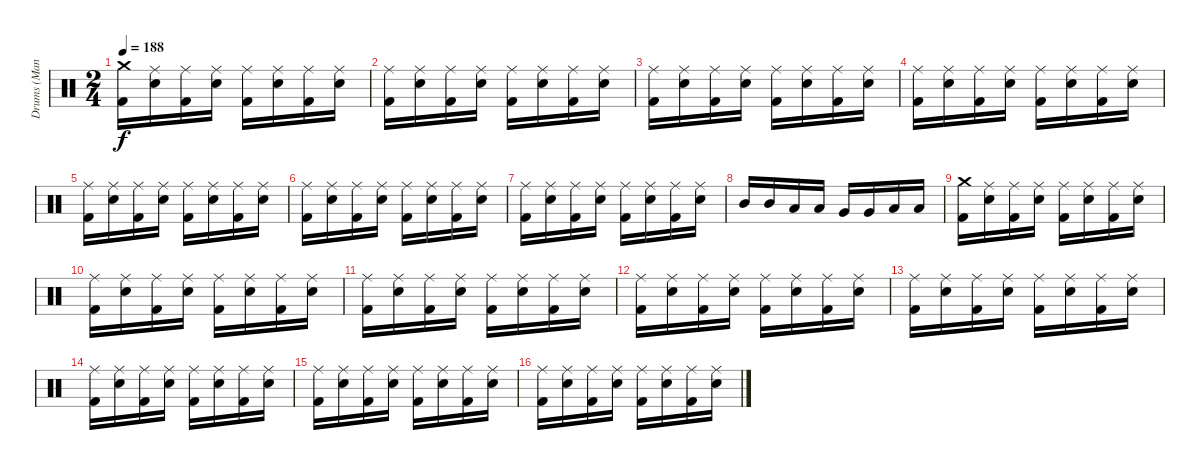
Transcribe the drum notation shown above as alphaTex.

\track ("Drums (Manheim)" "Drums (Man") {instrument percussion}
\staff {score}
\articulation defaults
\ts (2 4)
\tempo 188
\clef neutral
\ks c
("Crash medium (hit)" "Kick (hit) 2").16{dy f} ("Ride (middle)" "Electric Snare (hit)").16 ("Ride (middle)" "Kick (hit) 2").16 ("Ride (middle)" "Electric Snare (hit)").16 ("Ride (middle)" "Kick (hit) 2").16 ("Ride (middle)" "Electric Snare (hit)").16 ("Ride (middle)" "Kick (hit) 2").16 ("Ride (middle)" "Electric Snare (hit)").16 |
("Ride (middle)" "Kick (hit) 2").16 ("Ride (middle)" "Electric Snare (hit)").16 ("Ride (middle)" "Kick (hit) 2").16 ("Ride (middle)" "Electric Snare (hit)").16 ("Ride (middle)" "Kick (hit) 2").16 ("Ride (middle)" "Electric Snare (hit)").16 ("Ride (middle)" "Kick (hit) 2").16 ("Ride (middle)" "Electric Snare (hit)").16 |
("Ride (middle)" "Kick (hit) 2").16 ("Ride (middle)" "Electric Snare (hit)").16 ("Ride (middle)" "Kick (hit) 2").16 ("Ride (middle)" "Electric Snare (hit)").16 ("Ride (middle)" "Kick (hit) 2").16 ("Ride (middle)" "Electric Snare (hit)").16 ("Ride (middle)" "Kick (hit) 2").16 ("Ride (middle)" "Electric Snare (hit)").16 |
("Ride (middle)" "Kick (hit) 2").16 ("Ride (middle)" "Electric Snare (hit)").16 ("Ride (middle)" "Kick (hit) 2").16 ("Ride (middle)" "Electric Snare (hit)").16 ("Ride (middle)" "Kick (hit) 2").16 ("Ride (middle)" "Electric Snare (hit)").16 ("Ride (middle)" "Kick (hit) 2").16 ("Ride (middle)" "Electric Snare (hit)").16 |
("Ride (middle)" "Kick (hit) 2").16 ("Ride (middle)" "Electric Snare (hit)").16 ("Ride (middle)" "Kick (hit) 2").16 ("Ride (middle)" "Electric Snare (hit)").16 ("Ride (middle)" "Kick (hit) 2").16 ("Ride (middle)" "Electric Snare (hit)").16 ("Ride (middle)" "Kick (hit) 2").16 ("Ride (middle)" "Electric Snare (hit)").16 |
("Ride (middle)" "Kick (hit) 2").16 ("Ride (middle)" "Electric Snare (hit)").16 ("Ride (middle)" "Kick (hit) 2").16 ("Ride (middle)" "Electric Snare (hit)").16 ("Ride (middle)" "Kick (hit) 2").16 ("Ride (middle)" "Electric Snare (hit)").16 ("Ride (middle)" "Kick (hit) 2").16 ("Ride (middle)" "Electric Snare (hit)").16 |
("Ride (middle)" "Kick (hit) 2").16 ("Ride (middle)" "Electric Snare (hit)").16 ("Ride (middle)" "Kick (hit) 2").16 ("Ride (middle)" "Electric Snare (hit)").16 ("Ride (middle)" "Kick (hit) 2").16 ("Ride (middle)" "Electric Snare (hit)").16 ("Ride (middle)" "Kick (hit) 2").16 ("Ride (middle)" "Electric Snare (hit)").16 |
"Mid Tom (hit)".16 "Mid Tom (hit)".16 "Low Tom (hit)".16 "Low Tom (hit)".16 "Very Low Tom (hit)".16 "Very Low Tom (hit)".16 "Low Floor Tom (hit)".16 "Low Floor Tom (hit)".16 |
("Crash medium (hit)" "Kick (hit) 2").16 ("Ride (middle)" "Electric Snare (hit)").16 ("Ride (middle)" "Kick (hit) 2").16 ("Ride (middle)" "Electric Snare (hit)").16 ("Ride (middle)" "Kick (hit) 2").16 ("Ride (middle)" "Electric Snare (hit)").16 ("Ride (middle)" "Kick (hit) 2").16 ("Ride (middle)" "Electric Snare (hit)").16 |
("Ride (middle)" "Kick (hit) 2").16 ("Ride (middle)" "Electric Snare (hit)").16 ("Ride (middle)" "Kick (hit) 2").16 ("Ride (middle)" "Electric Snare (hit)").16 ("Ride (middle)" "Kick (hit) 2").16 ("Ride (middle)" "Electric Snare (hit)").16 ("Ride (middle)" "Kick (hit) 2").16 ("Ride (middle)" "Electric Snare (hit)").16 |
("Ride (middle)" "Kick (hit) 2").16 ("Ride (middle)" "Electric Snare (hit)").16 ("Ride (middle)" "Kick (hit) 2").16 ("Ride (middle)" "Electric Snare (hit)").16 ("Ride (middle)" "Kick (hit) 2").16 ("Ride (middle)" "Electric Snare (hit)").16 ("Ride (middle)" "Kick (hit) 2").16 ("Ride (middle)" "Electric Snare (hit)").16 |
("Ride (middle)" "Kick (hit) 2").16 ("Ride (middle)" "Electric Snare (hit)").16 ("Ride (middle)" "Kick (hit) 2").16 ("Ride (middle)" "Electric Snare (hit)").16 ("Ride (middle)" "Kick (hit) 2").16 ("Ride (middle)" "Electric Snare (hit)").16 ("Ride (middle)" "Kick (hit) 2").16 ("Ride (middle)" "Electric Snare (hit)").16 |
("Ride (middle)" "Kick (hit) 2").16 ("Ride (middle)" "Electric Snare (hit)").16 ("Ride (middle)" "Kick (hit) 2").16 ("Ride (middle)" "Electric Snare (hit)").16 ("Ride (middle)" "Kick (hit) 2").16 ("Ride (middle)" "Electric Snare (hit)").16 ("Ride (middle)" "Kick (hit) 2").16 ("Ride (middle)" "Electric Snare (hit)").16 |
("Ride (middle)" "Kick (hit) 2").16 ("Ride (middle)" "Electric Snare (hit)").16 ("Ride (middle)" "Kick (hit) 2").16 ("Ride (middle)" "Electric Snare (hit)").16 ("Ride (middle)" "Kick (hit) 2").16 ("Ride (middle)" "Electric Snare (hit)").16 ("Ride (middle)" "Kick (hit) 2").16 ("Ride (middle)" "Electric Snare (hit)").16 |
("Ride (middle)" "Kick (hit) 2").16 ("Ride (middle)" "Electric Snare (hit)").16 ("Ride (middle)" "Kick (hit) 2").16 ("Ride (middle)" "Electric Snare (hit)").16 ("Ride (middle)" "Kick (hit) 2").16 ("Ride (middle)" "Electric Snare (hit)").16 ("Ride (middle)" "Kick (hit) 2").16 ("Ride (middle)" "Electric Snare (hit)").16 |
("Ride (middle)" "Kick (hit) 2").16 ("Ride (middle)" "Electric Snare (hit)").16 ("Ride (middle)" "Kick (hit) 2").16 ("Ride (middle)" "Electric Snare (hit)").16 ("Ride (middle)" "Kick (hit) 2").16 ("Ride (middle)" "Electric Snare (hit)").16 ("Ride (middle)" "Kick (hit) 2").16 ("Ride (middle)" "Electric Snare (hit)").16
